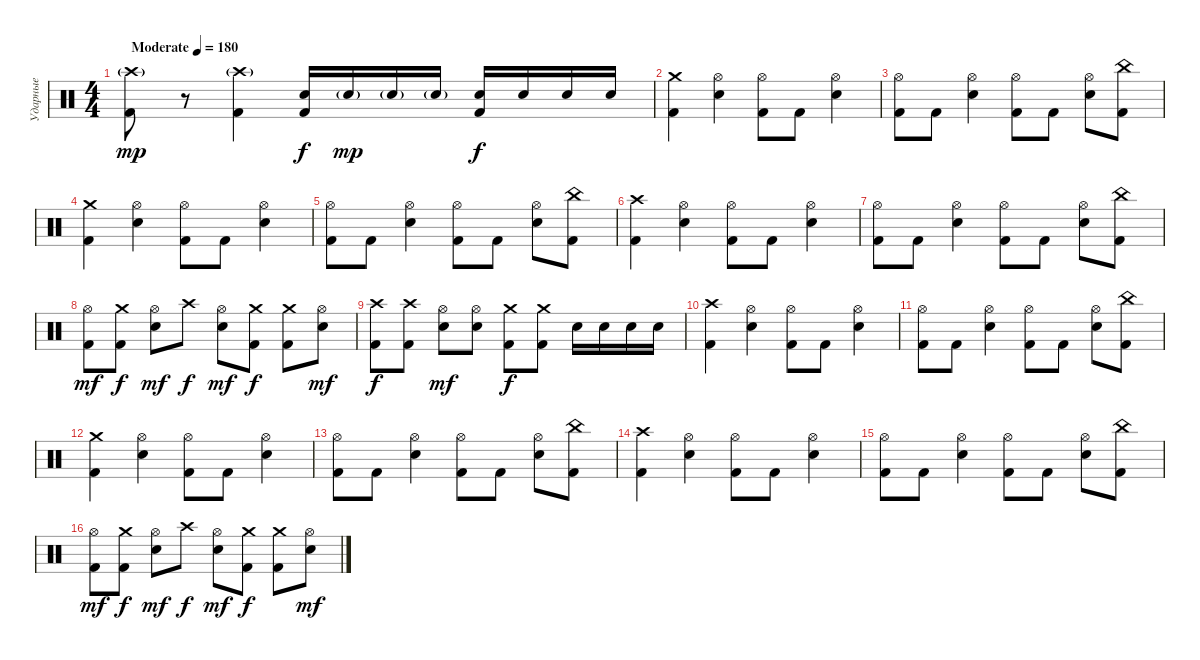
\track ("Ударные" "Ударные") {instrument percussion}
\staff {score}
\articulation defaults
\ts (4 4)
\tempo (180 "Moderate")
\clef neutral
\ks c
("Kick (hit) 2" "Crash high (hit)"{g}).8{dy mp} r.8 ("Kick (hit) 2" "Crash high (hit)"{g}).4 ("Electric Snare (hit)" "Kick (hit) 2").16{dy f} "Electric Snare (hit)"{g}.16{dy mp} "Electric Snare (hit)"{g}.16 "Electric Snare (hit)"{g}.16 ("Electric Snare (hit)" "Kick (hit) 2").16{dy f} "Electric Snare (hit)".16 "Electric Snare (hit)".16 "Electric Snare (hit)".16 |
("Crash medium (hit)" "Kick (hit) 2").4 ("Electric Snare (hit)" "Hi-Hat (open)").4 ("Kick (hit) 2" "Hi-Hat (open)").8 "Kick (hit) 2".8 ("Electric Snare (hit)" "Hi-Hat (open)").4 |
("Kick (hit) 2" "Hi-Hat (open)").8 "Kick (hit) 2".8 ("Electric Snare (hit)" "Hi-Hat (open)").4 ("Kick (hit) 2" "Hi-Hat (open)").8 "Kick (hit) 2".8 ("Electric Snare (hit)" "Hi-Hat (open)").8 ("Kick (hit) 2" "China (hit)").8 |
("Crash medium (hit)" "Kick (hit) 2").4 ("Electric Snare (hit)" "Hi-Hat (open)").4 ("Kick (hit) 2" "Hi-Hat (open)").8 "Kick (hit) 2".8 ("Electric Snare (hit)" "Hi-Hat (open)").4 |
("Kick (hit) 2" "Hi-Hat (open)").8 "Kick (hit) 2".8 ("Electric Snare (hit)" "Hi-Hat (open)").4 ("Kick (hit) 2" "Hi-Hat (open)").8 "Kick (hit) 2".8 ("Electric Snare (hit)" "Hi-Hat (open)").8 ("Kick (hit) 2" "China (hit)").8 |
("Crash high (hit)" "Kick (hit) 2").4 ("Electric Snare (hit)" "Hi-Hat (open)").4 ("Kick (hit) 2" "Hi-Hat (open)").8 "Kick (hit) 2".8 ("Electric Snare (hit)" "Hi-Hat (open)").4 |
("Kick (hit) 2" "Hi-Hat (open)").8 "Kick (hit) 2".8 ("Electric Snare (hit)" "Hi-Hat (open)").4 ("Kick (hit) 2" "Hi-Hat (open)").8 "Kick (hit) 2".8 ("Electric Snare (hit)" "Hi-Hat (open)").8 ("Kick (hit) 2" "China (hit)").8 |
("Hi-Hat (open)" "Kick (hit) 2").8{dy mf} ("Crash medium (hit)" "Kick (hit) 2").8{dy f} ("Hi-Hat (open)" "Electric Snare (hit)").8{dy mf} "Crash high (hit)".8{dy f} ("Hi-Hat (open)" "Electric Snare (hit)").8{dy mf} ("Crash medium (hit)" "Kick (hit) 2").8{dy f} ("Crash medium (hit)" "Kick (hit) 2").8 ("Hi-Hat (open)" "Electric Snare (hit)").8{dy mf} |
("Crash high (hit)" "Kick (hit) 2").8{dy f} ("Crash high (hit)" "Kick (hit) 2").8 ("Hi-Hat (open)" "Electric Snare (hit)").8{dy mf} ("Hi-Hat (open)" "Electric Snare (hit)").8 ("Crash medium (hit)" "Kick (hit) 2").8{dy f} ("Crash medium (hit)" "Kick (hit) 2").8 "Electric Snare (hit)".16 "Electric Snare (hit)".16 "Electric Snare (hit)".16 "Electric Snare (hit)".16 |
("Crash high (hit)" "Kick (hit) 2").4 ("Electric Snare (hit)" "Hi-Hat (open)").4 ("Kick (hit) 2" "Hi-Hat (open)").8 "Kick (hit) 2".8 ("Electric Snare (hit)" "Hi-Hat (open)").4 |
("Kick (hit) 2" "Hi-Hat (open)").8 "Kick (hit) 2".8 ("Electric Snare (hit)" "Hi-Hat (open)").4 ("Kick (hit) 2" "Hi-Hat (open)").8 "Kick (hit) 2".8 ("Electric Snare (hit)" "Hi-Hat (open)").8 ("Kick (hit) 2" "China (hit)").8 |
("Crash medium (hit)" "Kick (hit) 2").4 ("Electric Snare (hit)" "Hi-Hat (open)").4 ("Kick (hit) 2" "Hi-Hat (open)").8 "Kick (hit) 2".8 ("Electric Snare (hit)" "Hi-Hat (open)").4 |
("Kick (hit) 2" "Hi-Hat (open)").8 "Kick (hit) 2".8 ("Electric Snare (hit)" "Hi-Hat (open)").4 ("Kick (hit) 2" "Hi-Hat (open)").8 "Kick (hit) 2".8 ("Electric Snare (hit)" "Hi-Hat (open)").8 ("Kick (hit) 2" "China (hit)").8 |
("Crash high (hit)" "Kick (hit) 2").4 ("Electric Snare (hit)" "Hi-Hat (open)").4 ("Kick (hit) 2" "Hi-Hat (open)").8 "Kick (hit) 2".8 ("Electric Snare (hit)" "Hi-Hat (open)").4 |
("Kick (hit) 2" "Hi-Hat (open)").8 "Kick (hit) 2".8 ("Electric Snare (hit)" "Hi-Hat (open)").4 ("Kick (hit) 2" "Hi-Hat (open)").8 "Kick (hit) 2".8 ("Electric Snare (hit)" "Hi-Hat (open)").8 ("Kick (hit) 2" "China (hit)").8 |
("Hi-Hat (open)" "Kick (hit) 2").8{dy mf} ("Crash medium (hit)" "Kick (hit) 2").8{dy f} ("Hi-Hat (open)" "Electric Snare (hit)").8{dy mf} "Crash high (hit)".8{dy f} ("Hi-Hat (open)" "Electric Snare (hit)").8{dy mf} ("Crash medium (hit)" "Kick (hit) 2").8{dy f} ("Crash medium (hit)" "Kick (hit) 2").8 ("Hi-Hat (open)" "Electric Snare (hit)").8{dy mf}
